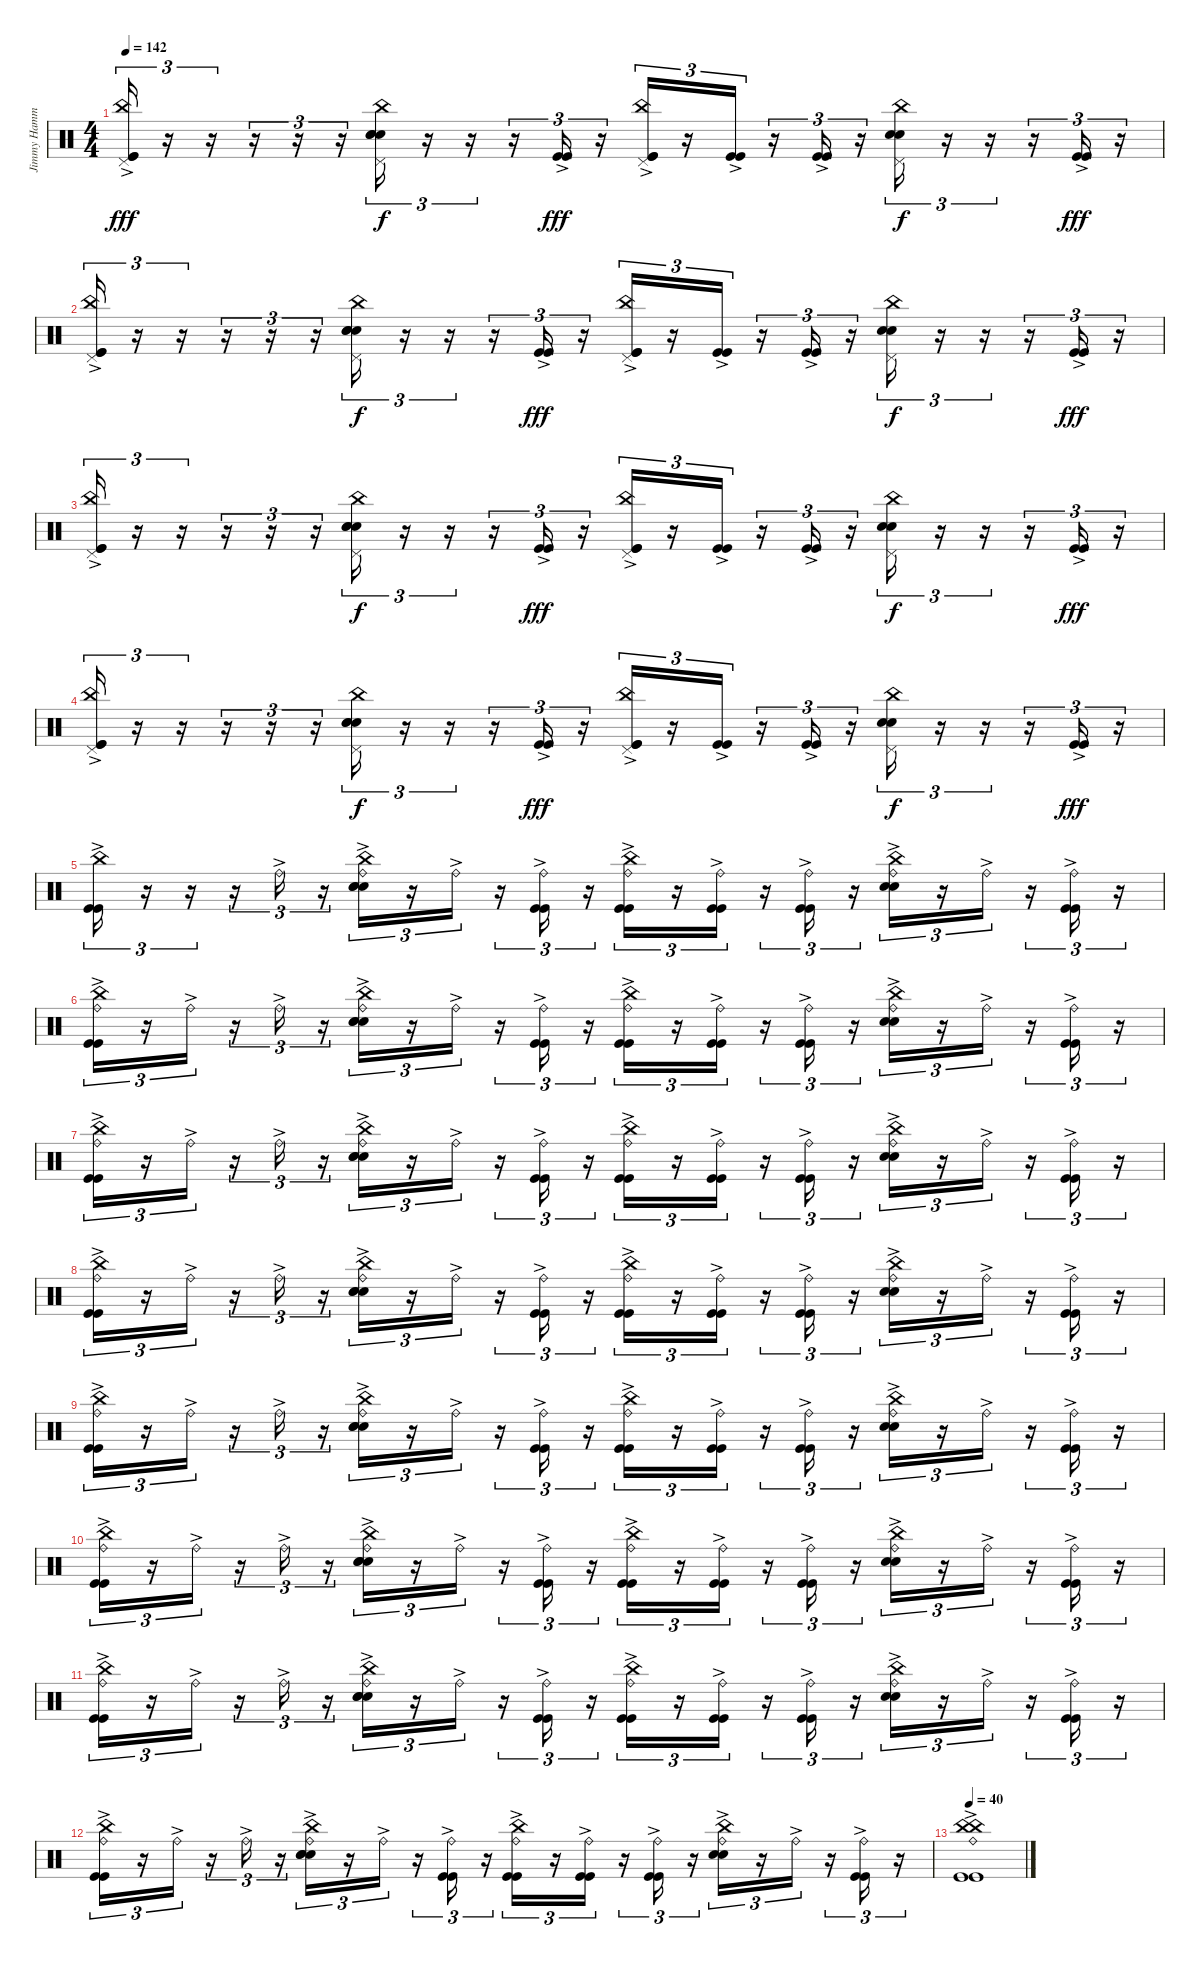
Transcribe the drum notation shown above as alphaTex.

\track ("Jimmy Hammer" "Jimmy Hamm") {instrument percussion}
\staff {score}
\articulation defaults
\ts (4 4)
\tempo 142
\clef neutral
\ks c
("Kick (hit)"{ac} "China (hit)" "Pedal Hi-Hat (hit)" "Kick (hit)"{ac}).16{tu (3 2) dy fff} r.16{tu (3 2)} r.16{tu (3 2)} r.16{tu (3 2)} r.16{tu (3 2)} r.16{tu (3 2)} ("China (hit)" "Electric Snare (hit)" "Electric Snare (hit)" "Electric Snare (hit)" "Pedal Hi-Hat (hit)").16{tu (3 2) dy f} r.16{tu (3 2)} r.16{tu (3 2)} r.16{tu (3 2)} ("Kick (hit)"{ac} "Kick (hit)"{ac}).16{tu (3 2) dy fff} r.16{tu (3 2)} ("China (hit)" "Kick (hit)"{ac} "Kick (hit)"{ac} "Pedal Hi-Hat (hit)").16{tu (3 2)} r.16{tu (3 2)} ("Kick (hit)"{ac} "Kick (hit)"{ac}).16{tu (3 2)} r.16{tu (3 2)} ("Kick (hit)"{ac} "Kick (hit)"{ac}).16{tu (3 2)} r.16{tu (3 2)} ("Electric Snare (hit)" "Electric Snare (hit)" "China (hit)" "Pedal Hi-Hat (hit)").16{tu (3 2) dy f} r.16{tu (3 2)} r.16{tu (3 2)} r.16{tu (3 2)} ("Kick (hit)"{ac} "Kick (hit)"{ac}).16{tu (3 2) dy fff} r.16{tu (3 2)} |
("Kick (hit)"{ac} "China (hit)" "Pedal Hi-Hat (hit)" "Kick (hit)"{ac}).16{tu (3 2)} r.16{tu (3 2)} r.16{tu (3 2)} r.16{tu (3 2)} r.16{tu (3 2)} r.16{tu (3 2)} ("China (hit)" "Electric Snare (hit)" "Electric Snare (hit)" "Electric Snare (hit)" "Pedal Hi-Hat (hit)").16{tu (3 2) dy f} r.16{tu (3 2)} r.16{tu (3 2)} r.16{tu (3 2)} ("Kick (hit)"{ac} "Kick (hit)"{ac}).16{tu (3 2) dy fff} r.16{tu (3 2)} ("China (hit)" "Kick (hit)"{ac} "Kick (hit)"{ac} "Pedal Hi-Hat (hit)").16{tu (3 2)} r.16{tu (3 2)} ("Kick (hit)"{ac} "Kick (hit)"{ac}).16{tu (3 2)} r.16{tu (3 2)} ("Kick (hit)"{ac} "Kick (hit)"{ac}).16{tu (3 2)} r.16{tu (3 2)} ("Electric Snare (hit)" "Electric Snare (hit)" "China (hit)" "Pedal Hi-Hat (hit)").16{tu (3 2) dy f} r.16{tu (3 2)} r.16{tu (3 2)} r.16{tu (3 2)} ("Kick (hit)"{ac} "Kick (hit)"{ac}).16{tu (3 2) dy fff} r.16{tu (3 2)} |
("Kick (hit)"{ac} "China (hit)" "Pedal Hi-Hat (hit)" "Kick (hit)"{ac}).16{tu (3 2)} r.16{tu (3 2)} r.16{tu (3 2)} r.16{tu (3 2)} r.16{tu (3 2)} r.16{tu (3 2)} ("China (hit)" "Electric Snare (hit)" "Electric Snare (hit)" "Electric Snare (hit)" "Pedal Hi-Hat (hit)").16{tu (3 2) dy f} r.16{tu (3 2)} r.16{tu (3 2)} r.16{tu (3 2)} ("Kick (hit)"{ac} "Kick (hit)"{ac}).16{tu (3 2) dy fff} r.16{tu (3 2)} ("China (hit)" "Kick (hit)"{ac} "Kick (hit)"{ac} "Pedal Hi-Hat (hit)").16{tu (3 2)} r.16{tu (3 2)} ("Kick (hit)"{ac} "Kick (hit)"{ac}).16{tu (3 2)} r.16{tu (3 2)} ("Kick (hit)"{ac} "Kick (hit)"{ac}).16{tu (3 2)} r.16{tu (3 2)} ("Electric Snare (hit)" "Electric Snare (hit)" "China (hit)" "Pedal Hi-Hat (hit)").16{tu (3 2) dy f} r.16{tu (3 2)} r.16{tu (3 2)} r.16{tu (3 2)} ("Kick (hit)"{ac} "Kick (hit)"{ac}).16{tu (3 2) dy fff} r.16{tu (3 2)} |
("Kick (hit)"{ac} "China (hit)" "Pedal Hi-Hat (hit)" "Kick (hit)"{ac}).16{tu (3 2)} r.16{tu (3 2)} r.16{tu (3 2)} r.16{tu (3 2)} r.16{tu (3 2)} r.16{tu (3 2)} ("China (hit)" "Electric Snare (hit)" "Electric Snare (hit)" "Electric Snare (hit)" "Pedal Hi-Hat (hit)").16{tu (3 2) dy f} r.16{tu (3 2)} r.16{tu (3 2)} r.16{tu (3 2)} ("Kick (hit)"{ac} "Kick (hit)"{ac}).16{tu (3 2) dy fff} r.16{tu (3 2)} ("China (hit)" "Kick (hit)"{ac} "Kick (hit)"{ac} "Pedal Hi-Hat (hit)").16{tu (3 2)} r.16{tu (3 2)} ("Kick (hit)"{ac} "Kick (hit)"{ac}).16{tu (3 2)} r.16{tu (3 2)} ("Kick (hit)"{ac} "Kick (hit)"{ac}).16{tu (3 2)} r.16{tu (3 2)} ("Electric Snare (hit)" "Electric Snare (hit)" "China (hit)" "Pedal Hi-Hat (hit)").16{tu (3 2) dy f} r.16{tu (3 2)} r.16{tu (3 2)} r.16{tu (3 2)} ("Kick (hit)"{ac} "Kick (hit)"{ac}).16{tu (3 2) dy fff} r.16{tu (3 2)} |
("Kick (hit)"{ac} "China (hit)" "Kick (hit)"{ac}).16{tu (3 2)} r.16{tu (3 2)} r.16{tu (3 2)} r.16{tu (3 2)} "Ride (bell)"{ac}.16{tu (3 2)} r.16{tu (3 2)} ("China (hit)" "Electric Snare (hit)" "Electric Snare (hit)" "Electric Snare (hit)" "Ride (bell)"{ac}).16{tu (3 2)} r.16{tu (3 2)} "Ride (bell)"{ac}.16{tu (3 2)} r.16{tu (3 2)} ("Kick (hit)"{ac} "Kick (hit)"{ac} "Ride (bell)"{ac}).16{tu (3 2)} r.16{tu (3 2)} ("China (hit)" "Kick (hit)"{ac} "Kick (hit)"{ac} "Ride (bell)"{ac}).16{tu (3 2)} r.16{tu (3 2)} ("Kick (hit)"{ac} "Kick (hit)"{ac} "Ride (bell)"{ac}).16{tu (3 2)} r.16{tu (3 2)} ("Kick (hit)"{ac} "Kick (hit)"{ac} "Ride (bell)"{ac}).16{tu (3 2)} r.16{tu (3 2)} ("Electric Snare (hit)" "Electric Snare (hit)" "China (hit)" "Ride (bell)"{ac}).16{tu (3 2)} r.16{tu (3 2)} "Ride (bell)"{ac}.16{tu (3 2)} r.16{tu (3 2)} ("Kick (hit)"{ac} "Kick (hit)"{ac} "Ride (bell)"{ac}).16{tu (3 2)} r.16{tu (3 2)} |
("Kick (hit)"{ac} "China (hit)" "Ride (bell)" "Kick (hit)"{ac}).16{tu (3 2)} r.16{tu (3 2)} "Ride (bell)"{ac}.16{tu (3 2)} r.16{tu (3 2)} "Ride (bell)"{ac}.16{tu (3 2)} r.16{tu (3 2)} ("China (hit)" "Electric Snare (hit)" "Electric Snare (hit)" "Electric Snare (hit)" "Ride (bell)"{ac}).16{tu (3 2)} r.16{tu (3 2)} "Ride (bell)"{ac}.16{tu (3 2)} r.16{tu (3 2)} ("Kick (hit)"{ac} "Kick (hit)"{ac} "Ride (bell)"{ac}).16{tu (3 2)} r.16{tu (3 2)} ("China (hit)" "Kick (hit)"{ac} "Kick (hit)"{ac} "Ride (bell)"{ac}).16{tu (3 2)} r.16{tu (3 2)} ("Kick (hit)"{ac} "Kick (hit)"{ac} "Ride (bell)"{ac}).16{tu (3 2)} r.16{tu (3 2)} ("Kick (hit)"{ac} "Kick (hit)"{ac} "Ride (bell)"{ac}).16{tu (3 2)} r.16{tu (3 2)} ("Electric Snare (hit)" "Electric Snare (hit)" "China (hit)" "Ride (bell)"{ac}).16{tu (3 2)} r.16{tu (3 2)} "Ride (bell)"{ac}.16{tu (3 2)} r.16{tu (3 2)} ("Kick (hit)"{ac} "Kick (hit)"{ac} "Ride (bell)"{ac}).16{tu (3 2)} r.16{tu (3 2)} |
("Kick (hit)"{ac} "China (hit)" "Ride (bell)"{ac} "Kick (hit)"{ac}).16{tu (3 2)} r.16{tu (3 2)} "Ride (bell)"{ac}.16{tu (3 2)} r.16{tu (3 2)} "Ride (bell)"{ac}.16{tu (3 2)} r.16{tu (3 2)} ("China (hit)" "Electric Snare (hit)" "Electric Snare (hit)" "Electric Snare (hit)" "Ride (bell)"{ac}).16{tu (3 2)} r.16{tu (3 2)} "Ride (bell)"{ac}.16{tu (3 2)} r.16{tu (3 2)} ("Kick (hit)"{ac} "Kick (hit)"{ac} "Ride (bell)"{ac}).16{tu (3 2)} r.16{tu (3 2)} ("China (hit)" "Kick (hit)"{ac} "Kick (hit)"{ac} "Ride (bell)"{ac}).16{tu (3 2)} r.16{tu (3 2)} ("Kick (hit)"{ac} "Kick (hit)"{ac} "Ride (bell)"{ac}).16{tu (3 2)} r.16{tu (3 2)} ("Kick (hit)"{ac} "Kick (hit)"{ac} "Ride (bell)"{ac}).16{tu (3 2)} r.16{tu (3 2)} ("Electric Snare (hit)" "Electric Snare (hit)" "China (hit)" "Ride (bell)"{ac}).16{tu (3 2)} r.16{tu (3 2)} "Ride (bell)"{ac}.16{tu (3 2)} r.16{tu (3 2)} ("Kick (hit)"{ac} "Kick (hit)"{ac} "Ride (bell)"{ac}).16{tu (3 2)} r.16{tu (3 2)} |
("Kick (hit)"{ac} "China (hit)" "Ride (bell)"{ac} "Kick (hit)"{ac}).16{tu (3 2)} r.16{tu (3 2)} "Ride (bell)"{ac}.16{tu (3 2)} r.16{tu (3 2)} "Ride (bell)"{ac}.16{tu (3 2)} r.16{tu (3 2)} ("China (hit)" "Electric Snare (hit)" "Electric Snare (hit)" "Electric Snare (hit)" "Ride (bell)"{ac}).16{tu (3 2)} r.16{tu (3 2)} "Ride (bell)"{ac}.16{tu (3 2)} r.16{tu (3 2)} ("Kick (hit)"{ac} "Kick (hit)"{ac} "Ride (bell)"{ac}).16{tu (3 2)} r.16{tu (3 2)} ("China (hit)" "Kick (hit)"{ac} "Kick (hit)"{ac} "Ride (bell)"{ac}).16{tu (3 2)} r.16{tu (3 2)} ("Kick (hit)"{ac} "Kick (hit)"{ac} "Ride (bell)"{ac}).16{tu (3 2)} r.16{tu (3 2)} ("Kick (hit)"{ac} "Kick (hit)"{ac} "Ride (bell)"{ac}).16{tu (3 2)} r.16{tu (3 2)} ("Electric Snare (hit)" "Electric Snare (hit)" "China (hit)" "Ride (bell)"{ac}).16{tu (3 2)} r.16{tu (3 2)} "Ride (bell)"{ac}.16{tu (3 2)} r.16{tu (3 2)} ("Kick (hit)"{ac} "Kick (hit)"{ac} "Ride (bell)"{ac}).16{tu (3 2)} r.16{tu (3 2)} |
("Kick (hit)"{ac} "China (hit)" "Ride (bell)" "Kick (hit)"{ac}).16{tu (3 2)} r.16{tu (3 2)} "Ride (bell)"{ac}.16{tu (3 2)} r.16{tu (3 2)} "Ride (bell)"{ac}.16{tu (3 2)} r.16{tu (3 2)} ("China (hit)" "Electric Snare (hit)" "Electric Snare (hit)" "Electric Snare (hit)" "Ride (bell)"{ac}).16{tu (3 2)} r.16{tu (3 2)} "Ride (bell)"{ac}.16{tu (3 2)} r.16{tu (3 2)} ("Kick (hit)"{ac} "Kick (hit)"{ac} "Ride (bell)"{ac}).16{tu (3 2)} r.16{tu (3 2)} ("China (hit)" "Kick (hit)"{ac} "Kick (hit)"{ac} "Ride (bell)"{ac}).16{tu (3 2)} r.16{tu (3 2)} ("Kick (hit)"{ac} "Kick (hit)"{ac} "Ride (bell)"{ac}).16{tu (3 2)} r.16{tu (3 2)} ("Kick (hit)"{ac} "Kick (hit)"{ac} "Ride (bell)"{ac}).16{tu (3 2)} r.16{tu (3 2)} ("Electric Snare (hit)" "Electric Snare (hit)" "China (hit)" "Ride (bell)"{ac}).16{tu (3 2)} r.16{tu (3 2)} "Ride (bell)"{ac}.16{tu (3 2)} r.16{tu (3 2)} ("Kick (hit)"{ac} "Kick (hit)"{ac} "Ride (bell)"{ac}).16{tu (3 2)} r.16{tu (3 2)} |
("Kick (hit)"{ac} "China (hit)" "Ride (bell)" "Kick (hit)"{ac}).16{tu (3 2)} r.16{tu (3 2)} "Ride (bell)"{ac}.16{tu (3 2)} r.16{tu (3 2)} "Ride (bell)"{ac}.16{tu (3 2)} r.16{tu (3 2)} ("China (hit)" "Electric Snare (hit)" "Electric Snare (hit)" "Electric Snare (hit)" "Ride (bell)"{ac}).16{tu (3 2)} r.16{tu (3 2)} "Ride (bell)"{ac}.16{tu (3 2)} r.16{tu (3 2)} ("Kick (hit)"{ac} "Kick (hit)"{ac} "Ride (bell)"{ac}).16{tu (3 2)} r.16{tu (3 2)} ("China (hit)" "Kick (hit)"{ac} "Kick (hit)"{ac} "Ride (bell)"{ac}).16{tu (3 2)} r.16{tu (3 2)} ("Kick (hit)"{ac} "Kick (hit)"{ac} "Ride (bell)"{ac}).16{tu (3 2)} r.16{tu (3 2)} ("Kick (hit)"{ac} "Kick (hit)"{ac} "Ride (bell)"{ac}).16{tu (3 2)} r.16{tu (3 2)} ("Electric Snare (hit)" "Electric Snare (hit)" "China (hit)" "Ride (bell)"{ac}).16{tu (3 2)} r.16{tu (3 2)} "Ride (bell)"{ac}.16{tu (3 2)} r.16{tu (3 2)} ("Kick (hit)"{ac} "Kick (hit)"{ac} "Ride (bell)"{ac}).16{tu (3 2)} r.16{tu (3 2)} |
("Kick (hit)"{ac} "China (hit)" "Ride (bell)"{ac} "Kick (hit)"{ac}).16{tu (3 2)} r.16{tu (3 2)} "Ride (bell)"{ac}.16{tu (3 2)} r.16{tu (3 2)} "Ride (bell)"{ac}.16{tu (3 2)} r.16{tu (3 2)} ("China (hit)" "Electric Snare (hit)" "Electric Snare (hit)" "Electric Snare (hit)" "Ride (bell)"{ac}).16{tu (3 2)} r.16{tu (3 2)} "Ride (bell)"{ac}.16{tu (3 2)} r.16{tu (3 2)} ("Kick (hit)"{ac} "Kick (hit)"{ac} "Ride (bell)"{ac}).16{tu (3 2)} r.16{tu (3 2)} ("China (hit)" "Kick (hit)"{ac} "Kick (hit)"{ac} "Ride (bell)"{ac}).16{tu (3 2)} r.16{tu (3 2)} ("Kick (hit)"{ac} "Kick (hit)"{ac} "Ride (bell)"{ac}).16{tu (3 2)} r.16{tu (3 2)} ("Kick (hit)"{ac} "Kick (hit)"{ac} "Ride (bell)"{ac}).16{tu (3 2)} r.16{tu (3 2)} ("Electric Snare (hit)" "Electric Snare (hit)" "China (hit)" "Ride (bell)"{ac}).16{tu (3 2)} r.16{tu (3 2)} "Ride (bell)"{ac}.16{tu (3 2)} r.16{tu (3 2)} ("Kick (hit)"{ac} "Kick (hit)"{ac} "Ride (bell)"{ac}).16{tu (3 2)} r.16{tu (3 2)} |
("Kick (hit)"{ac} "China (hit)" "Ride (bell)"{ac} "Kick (hit)"{ac}).16{tu (3 2)} r.16{tu (3 2)} "Ride (bell)"{ac}.16{tu (3 2)} r.16{tu (3 2)} "Ride (bell)"{ac}.16{tu (3 2)} r.16{tu (3 2)} ("China (hit)" "Electric Snare (hit)" "Electric Snare (hit)" "Electric Snare (hit)" "Ride (bell)"{ac}).16{tu (3 2)} r.16{tu (3 2)} "Ride (bell)"{ac}.16{tu (3 2)} r.16{tu (3 2)} ("Kick (hit)"{ac} "Kick (hit)"{ac} "Ride (bell)"{ac}).16{tu (3 2)} r.16{tu (3 2)} ("China (hit)" "Kick (hit)"{ac} "Kick (hit)"{ac} "Ride (bell)"{ac}).16{tu (3 2)} r.16{tu (3 2)} ("Kick (hit)"{ac} "Kick (hit)"{ac} "Ride (bell)"{ac}).16{tu (3 2)} r.16{tu (3 2)} ("Kick (hit)"{ac} "Kick (hit)"{ac} "Ride (bell)"{ac}).16{tu (3 2)} r.16{tu (3 2)} ("Electric Snare (hit)" "Electric Snare (hit)" "China (hit)" "Ride (bell)"{ac}).16{tu (3 2)} r.16{tu (3 2)} "Ride (bell)"{ac}.16{tu (3 2)} r.16{tu (3 2)} ("Kick (hit)"{ac} "Kick (hit)"{ac} "Ride (bell)"{ac}).16{tu (3 2)} r.16{tu (3 2)} |
\tempo 40
("China (hit)"{ac} "Ride (bell)"{ac} "China (hit)"{ac} "Kick (hit)"{ac} "Kick (hit)"{ac}).1
